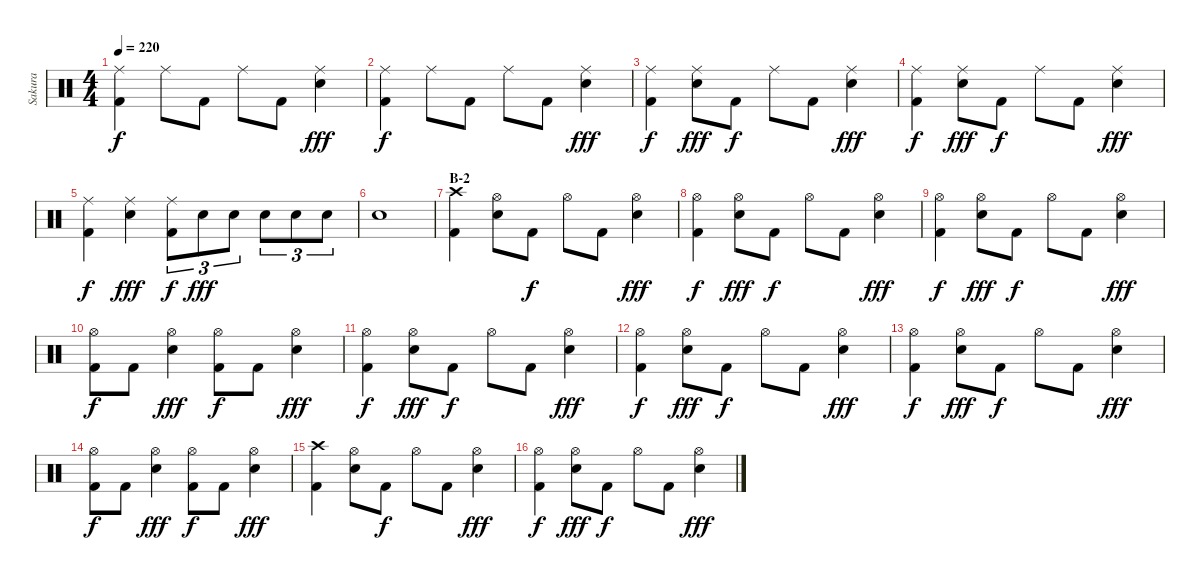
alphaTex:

\track ("Sakura" "Sakura") {instrument percussion}
\staff {score}
\articulation defaults
\ts (4 4)
\tempo 220
\clef neutral
\ks c
("Ride (middle)" "Kick (hit) 2").4{dy f} "Ride (middle)".8 "Kick (hit) 2".8 "Ride (middle)".8 "Kick (hit) 2".8 ("Ride (middle)" "Electric Snare (hit)").4{dy fff} |
("Ride (middle)" "Kick (hit) 2").4{dy f} "Ride (middle)".8 "Kick (hit) 2".8 "Ride (middle)".8 "Kick (hit) 2".8 ("Ride (middle)" "Electric Snare (hit)").4{dy fff} |
("Ride (middle)" "Kick (hit) 2").4{dy f} ("Ride (middle)" "Electric Snare (hit)").8{dy fff} "Kick (hit) 2".8{dy f} "Ride (middle)".8 "Kick (hit) 2".8 ("Ride (middle)" "Electric Snare (hit)").4{dy fff} |
("Ride (middle)" "Kick (hit) 2").4{dy f} ("Ride (middle)" "Electric Snare (hit)").8{dy fff} "Kick (hit) 2".8{dy f} "Ride (middle)".8 "Kick (hit) 2".8 ("Ride (middle)" "Electric Snare (hit)").4{dy fff} |
("Ride (middle)" "Kick (hit) 2").4{dy f} ("Ride (middle)" "Electric Snare (hit)").4{dy fff} ("Ride (middle)" "Kick (hit) 2").8{tu (3 2) dy f} "Electric Snare (hit)".8{tu (3 2) dy fff} "Electric Snare (hit)".8{tu (3 2)} "Electric Snare (hit)".8{tu (3 2)} "Electric Snare (hit)".8{tu (3 2)} "Electric Snare (hit)".8{tu (3 2)} |
"Electric Snare (hit)".1 |
\section ("" "B-2")
("Crash high (hit)" "Kick (hit) 2").4 ("Hi-Hat (open)" "Electric Snare (hit)").8 "Kick (hit) 2".8{dy f} "Hi-Hat (open)".8 "Kick (hit) 2".8 ("Hi-Hat (open)" "Electric Snare (hit)").4{dy fff} |
("Hi-Hat (open)" "Kick (hit) 2").4{dy f} ("Hi-Hat (open)" "Electric Snare (hit)").8{dy fff} "Kick (hit) 2".8{dy f} "Hi-Hat (open)".8 "Kick (hit) 2".8 ("Hi-Hat (open)" "Electric Snare (hit)").4{dy fff} |
("Hi-Hat (open)" "Kick (hit) 2").4{dy f} ("Hi-Hat (open)" "Electric Snare (hit)").8{dy fff} "Kick (hit) 2".8{dy f} "Hi-Hat (open)".8 "Kick (hit) 2".8 ("Hi-Hat (open)" "Electric Snare (hit)").4{dy fff} |
("Hi-Hat (open)" "Kick (hit) 2").8{dy f} "Kick (hit) 2".8 ("Hi-Hat (open)" "Electric Snare (hit)").4{dy fff} ("Hi-Hat (open)" "Kick (hit) 2").8{dy f} "Kick (hit) 2".8 ("Hi-Hat (open)" "Electric Snare (hit)").4{dy fff} |
("Hi-Hat (open)" "Kick (hit) 2").4{dy f} ("Hi-Hat (open)" "Electric Snare (hit)").8{dy fff} "Kick (hit) 2".8{dy f} "Hi-Hat (open)".8 "Kick (hit) 2".8 ("Hi-Hat (open)" "Electric Snare (hit)").4{dy fff} |
("Hi-Hat (open)" "Kick (hit) 2").4{dy f} ("Hi-Hat (open)" "Electric Snare (hit)").8{dy fff} "Kick (hit) 2".8{dy f} "Hi-Hat (open)".8 "Kick (hit) 2".8 ("Hi-Hat (open)" "Electric Snare (hit)").4{dy fff} |
("Hi-Hat (open)" "Kick (hit) 2").4{dy f} ("Hi-Hat (open)" "Electric Snare (hit)").8{dy fff} "Kick (hit) 2".8{dy f} "Hi-Hat (open)".8 "Kick (hit) 2".8 ("Hi-Hat (open)" "Electric Snare (hit)").4{dy fff} |
("Hi-Hat (open)" "Kick (hit) 2").8{dy f} "Kick (hit) 2".8 ("Hi-Hat (open)" "Electric Snare (hit)").4{dy fff} ("Hi-Hat (open)" "Kick (hit) 2").8{dy f} "Kick (hit) 2".8 ("Hi-Hat (open)" "Electric Snare (hit)").4{dy fff} |
("Crash high (hit)" "Kick (hit) 2").4 ("Hi-Hat (open)" "Electric Snare (hit)").8 "Kick (hit) 2".8{dy f} "Hi-Hat (open)".8 "Kick (hit) 2".8 ("Hi-Hat (open)" "Electric Snare (hit)").4{dy fff} |
("Hi-Hat (open)" "Kick (hit) 2").4{dy f} ("Hi-Hat (open)" "Electric Snare (hit)").8{dy fff} "Kick (hit) 2".8{dy f} "Hi-Hat (open)".8 "Kick (hit) 2".8 ("Hi-Hat (open)" "Electric Snare (hit)").4{dy fff}
